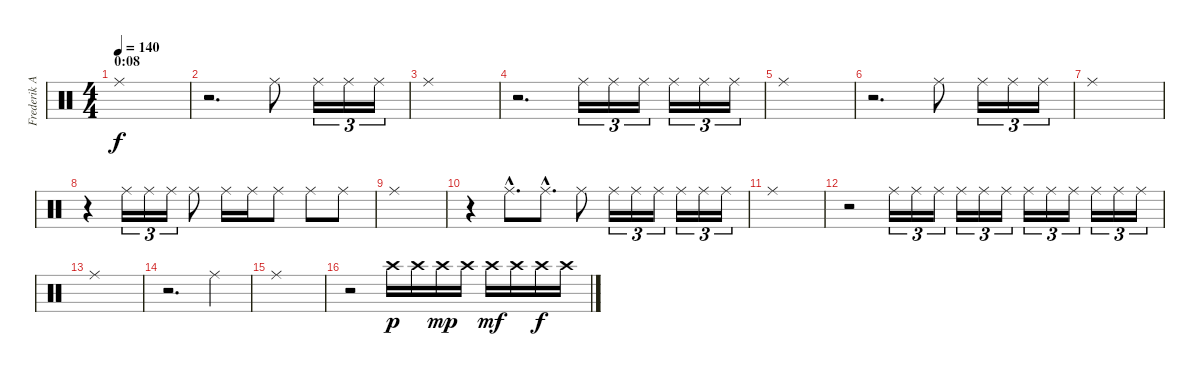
\track ("Frederik Anderson" "Frederik A") {instrument percussion}
\staff {score}
\articulation defaults
\ts (4 4)
\section ("" "0:08")
\tempo 140
\clef neutral
\ks c "Ride (middle)".1{dy f}
|
r.2{d} "Ride (middle)".8 "Ride (middle)".16{tu (3 2)} "Ride (middle)".16{tu (3 2)} "Ride (middle)".16{tu (3 2)} |
"Ride (middle)".1 |
r.2{d} "Ride (middle)".16{tu (3 2)} "Ride (middle)".16{tu (3 2)} "Ride (middle)".16{tu (3 2)} "Ride (middle)".16{tu (3 2)} "Ride (middle)".16{tu (3 2)} "Ride (middle)".16{tu (3 2)} |
"Ride (middle)".1 |
r.2{d} "Ride (middle)".8 "Ride (middle)".16{tu (3 2)} "Ride (middle)".16{tu (3 2)} "Ride (middle)".16{tu (3 2)} |
"Ride (middle)".1 |
r.4 "Ride (middle)".16{tu (3 2)} "Ride (middle)".16{tu (3 2)} "Ride (middle)".16{tu (3 2)} "Ride (middle)".8 "Ride (middle)".16 "Ride (middle)".16 "Ride (middle)".8 "Ride (middle)".8 "Ride (middle)".8 |
"Ride (middle)".1 |
r.4 "Ride (middle)"{hac}.8{d} "Ride (middle)"{hac}.8{d} "Ride (middle)".8 "Ride (middle)".16{tu (3 2)} "Ride (middle)".16{tu (3 2)} "Ride (middle)".16{tu (3 2)} "Ride (middle)".16{tu (3 2)} "Ride (middle)".16{tu (3 2)} "Ride (middle)".16{tu (3 2)} |
"Ride (middle)".1 |
r.2 "Ride (middle)".16{tu (3 2)} "Ride (middle)".16{tu (3 2)} "Ride (middle)".16{tu (3 2)} "Ride (middle)".16{tu (3 2)} "Ride (middle)".16{tu (3 2)} "Ride (middle)".16{tu (3 2)} "Ride (middle)".16{tu (3 2)} "Ride (middle)".16{tu (3 2)} "Ride (middle)".16{tu (3 2)} "Ride (middle)".16{tu (3 2)} "Ride (middle)".16{tu (3 2)} "Ride (middle)".16{tu (3 2)} |
"Ride (middle)".1 |
r.2{d} "Ride (middle)".4 |
"Ride (middle)".1 |
r.2 "Crash high (hit)".16{dy p} "Crash high (hit)".16 "Crash high (hit)".16{dy mp} "Crash high (hit)".16 "Crash high (hit)".16{dy mf} "Crash high (hit)".16 "Crash high (hit)".16{dy f} "Crash high (hit)".16
